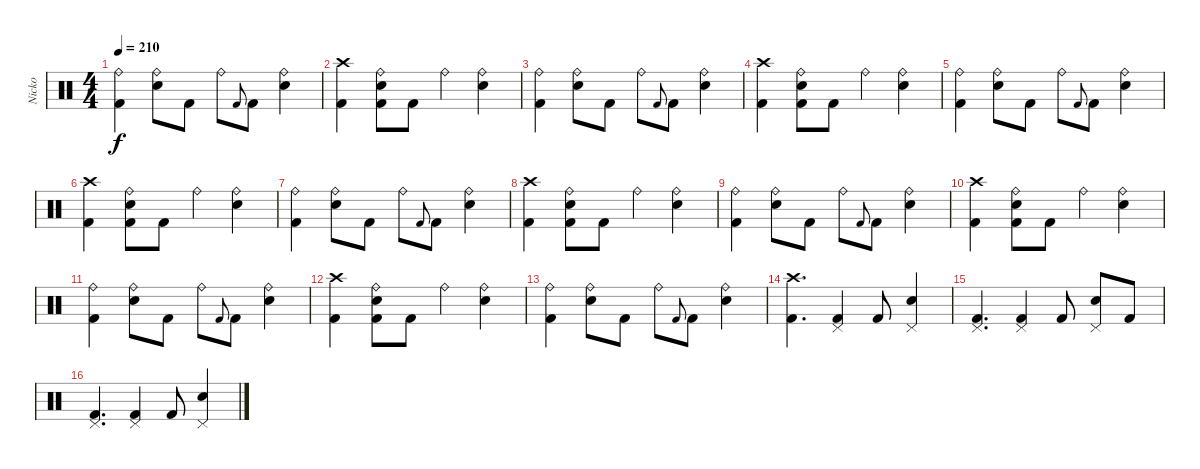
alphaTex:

\track ("Nicko" "Nicko") {instrument percussion}
\staff {score}
\articulation defaults
\ts (4 4)
\tempo 210
\clef neutral
\ks c
("Ride (bell)" "Kick (hit) 2").4{dy f} ("Ride (bell)" "Electric Snare (hit)").8 "Kick (hit) 2".8 "Ride (bell)".8 "Kick (hit) 2"{h}.8{gr onbeat} "Kick (hit) 2".8 ("Ride (bell)" "Electric Snare (hit)").4 |
("Crash high (hit)" "Kick (hit) 2").4 ("Ride (bell)" "Electric Snare (hit)" "Kick (hit) 2").8 "Kick (hit) 2".8 "Ride (bell)".4 ("Ride (bell)" "Electric Snare (hit)").4 |
("Ride (bell)" "Kick (hit) 2").4 ("Ride (bell)" "Electric Snare (hit)").8 "Kick (hit) 2".8 "Ride (bell)".8 "Kick (hit) 2"{h}.8{gr onbeat} "Kick (hit) 2".8 ("Ride (bell)" "Electric Snare (hit)").4 |
("Crash high (hit)" "Kick (hit) 2").4 ("Ride (bell)" "Electric Snare (hit)" "Kick (hit) 2").8 "Kick (hit) 2".8 "Ride (bell)".4 ("Ride (bell)" "Electric Snare (hit)").4 |
("Ride (bell)" "Kick (hit) 2").4 ("Ride (bell)" "Electric Snare (hit)").8 "Kick (hit) 2".8 "Ride (bell)".8 "Kick (hit) 2"{h}.8{gr onbeat} "Kick (hit) 2".8 ("Ride (bell)" "Electric Snare (hit)").4 |
("Crash high (hit)" "Kick (hit) 2").4 ("Ride (bell)" "Electric Snare (hit)" "Kick (hit) 2").8 "Kick (hit) 2".8 "Ride (bell)".4 ("Ride (bell)" "Electric Snare (hit)").4 |
("Ride (bell)" "Kick (hit) 2").4 ("Ride (bell)" "Electric Snare (hit)").8 "Kick (hit) 2".8 "Ride (bell)".8 "Kick (hit) 2"{h}.8{gr onbeat} "Kick (hit) 2".8 ("Ride (bell)" "Electric Snare (hit)").4 |
("Crash high (hit)" "Kick (hit) 2").4 ("Ride (bell)" "Electric Snare (hit)" "Kick (hit) 2").8 "Kick (hit) 2".8 "Ride (bell)".4 ("Ride (bell)" "Electric Snare (hit)").4 |
("Ride (bell)" "Kick (hit) 2").4 ("Ride (bell)" "Electric Snare (hit)").8 "Kick (hit) 2".8 "Ride (bell)".8 "Kick (hit) 2"{h}.8{gr onbeat} "Kick (hit) 2".8 ("Ride (bell)" "Electric Snare (hit)").4 |
("Crash high (hit)" "Kick (hit) 2").4 ("Ride (bell)" "Electric Snare (hit)" "Kick (hit) 2").8 "Kick (hit) 2".8 "Ride (bell)".4 ("Ride (bell)" "Electric Snare (hit)").4 |
("Ride (bell)" "Kick (hit) 2").4 ("Ride (bell)" "Electric Snare (hit)").8 "Kick (hit) 2".8 "Ride (bell)".8 "Kick (hit) 2"{h}.8{gr onbeat} "Kick (hit) 2".8 ("Ride (bell)" "Electric Snare (hit)").4 |
("Crash high (hit)" "Kick (hit) 2").4 ("Ride (bell)" "Electric Snare (hit)" "Kick (hit) 2").8 "Kick (hit) 2".8 "Ride (bell)".4 ("Ride (bell)" "Electric Snare (hit)").4 |
("Ride (bell)" "Kick (hit) 2").4 ("Ride (bell)" "Electric Snare (hit)").8 "Kick (hit) 2".8 "Ride (bell)".8 "Kick (hit) 2"{h}.8{gr onbeat} "Kick (hit) 2".8 ("Ride (bell)" "Electric Snare (hit)").4 |
("Crash high (hit)" "Kick (hit) 2").4{d} ("Pedal Hi-Hat (hit)" "Kick (hit) 2").4 "Kick (hit) 2".8 ("Pedal Hi-Hat (hit)" "Electric Snare (hit)").4 |
("Pedal Hi-Hat (hit)" "Kick (hit) 2").4{d} ("Pedal Hi-Hat (hit)" "Kick (hit) 2").4 "Kick (hit) 2".8 ("Pedal Hi-Hat (hit)" "Electric Snare (hit)").8 "Kick (hit) 2".8 |
("Pedal Hi-Hat (hit)" "Kick (hit) 2").4{d} ("Pedal Hi-Hat (hit)" "Kick (hit) 2").4 "Kick (hit) 2".8 ("Pedal Hi-Hat (hit)" "Electric Snare (hit)").4
